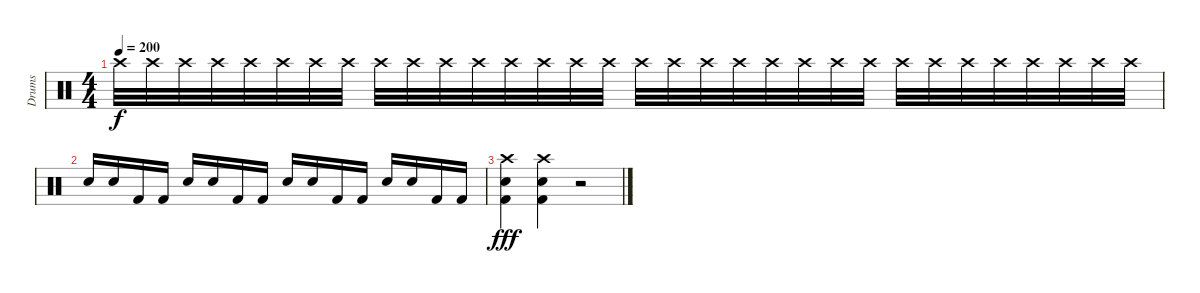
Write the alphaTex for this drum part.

\track ("Drums" "Drums") {instrument percussion}
\staff {score}
\articulation defaults
\ts (4 4)
\tempo 200
\clef neutral
\ks c "Crash high (hit)".32{dy f} "Crash high (hit)".32 "Crash high (hit)".32 "Crash high (hit)".32 "Crash high (hit)".32 "Crash high (hit)".32 "Crash high (hit)".32 "Crash high (hit)".32 "Crash high (hit)".32 "Crash high (hit)".32 "Crash high (hit)".32 "Crash high (hit)".32 "Crash high (hit)".32 "Crash high (hit)".32 "Crash high (hit)".32 "Crash high (hit)".32 "Crash high (hit)".32 "Crash high (hit)".32 "Crash high (hit)".32 "Crash high (hit)".32 "Crash high (hit)".32 "Crash high (hit)".32 "Crash high (hit)".32 "Crash high (hit)".32 "Crash high (hit)".32 "Crash high (hit)".32 "Crash high (hit)".32 "Crash high (hit)".32 "Crash high (hit)".32 "Crash high (hit)".32 "Crash high (hit)".32 "Crash high (hit)".32
|
"Electric Snare (hit)".16 "Electric Snare (hit)".16 "Kick (hit) 2".16 "Kick (hit) 2".16 "Electric Snare (hit)".16 "Electric Snare (hit)".16 "Kick (hit) 2".16 "Kick (hit) 2".16 "Electric Snare (hit)".16 "Electric Snare (hit)".16 "Kick (hit) 2".16 "Kick (hit) 2".16 "Electric Snare (hit)".16 "Electric Snare (hit)".16 "Kick (hit) 2".16 "Kick (hit) 2".16 |
("Electric Snare (hit)" "Crash high (hit)" "Kick (hit) 2").4{dy fff} ("Electric Snare (hit)" "Crash high (hit)" "Kick (hit) 2").4 r.2
